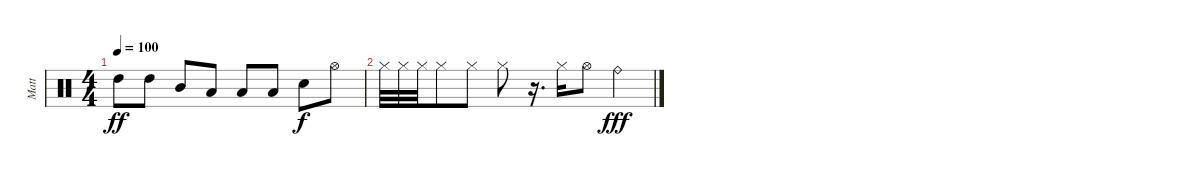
\track ("Matt" "Matt") {instrument percussion}
\staff {score}
\articulation defaults
\ts (4 4)
\tempo 100
\clef neutral
\ks c "High Tom (hit)".8{dy ff} "High Tom (hit)".8 "Mid Tom (hit)".8 "Low Tom (hit)".8 "Low Tom (hit)".8 "Low Floor Tom (hit)".8 "Snare (hit) 2".8{dy f} "Hi-Hat (open)".8
|
"Hi-Hat (closed)".32 "Hi-Hat (closed)".32 "Hi-Hat (closed)".32 "Hi-Hat (closed)".8 "Hi-Hat (closed)".8 "Hi-Hat (closed)".8 r.16{d} "Hi-Hat (closed)".16 "Hi-Hat (open)".8 "Ride (bell)".4{dy fff}
